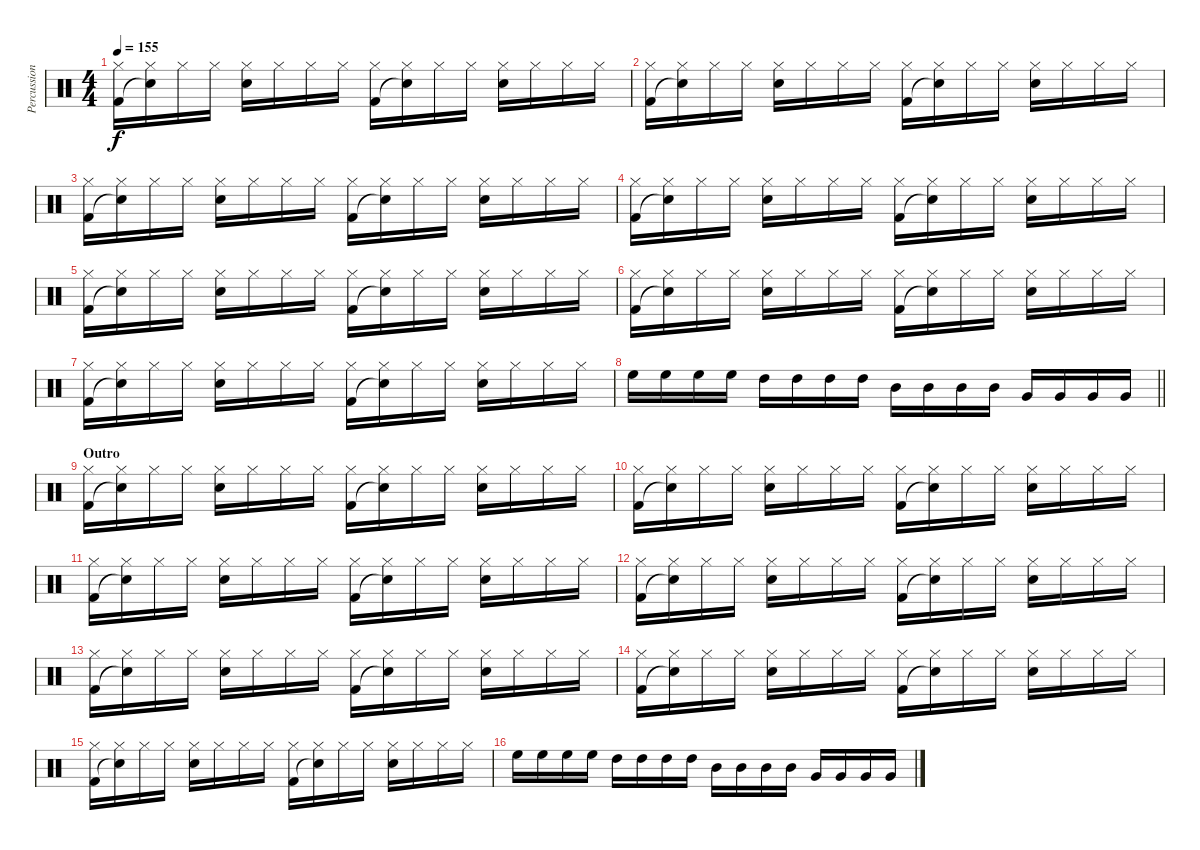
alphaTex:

\track ("Percussion" "Percussion") {instrument percussion}
\staff {score}
\articulation defaults
\ts (4 4)
\tempo 155
\clef neutral
\ks c
("Hi-Hat (closed)" "Kick (hit) 2").16{dy f} ("Hi-Hat (closed)" "Snare (hit)"{t}).16 "Hi-Hat (closed)".16 "Hi-Hat (closed)".16 ("Hi-Hat (closed)" "Snare (hit) 2").16 "Hi-Hat (closed)".16 "Hi-Hat (closed)".16 "Hi-Hat (closed)".16 ("Hi-Hat (closed)" "Kick (hit) 2").16 ("Hi-Hat (closed)" "Snare (hit)"{t}).16 "Hi-Hat (closed)".16 "Hi-Hat (closed)".16 ("Hi-Hat (closed)" "Snare (hit) 2").16 "Hi-Hat (closed)".16 "Hi-Hat (closed)".16 "Hi-Hat (closed)".16 |
("Hi-Hat (closed)" "Kick (hit) 2").16 ("Hi-Hat (closed)" "Snare (hit)"{t}).16 "Hi-Hat (closed)".16 "Hi-Hat (closed)".16 ("Hi-Hat (closed)" "Snare (hit) 2").16 "Hi-Hat (closed)".16 "Hi-Hat (closed)".16 "Hi-Hat (closed)".16 ("Hi-Hat (closed)" "Kick (hit) 2").16 ("Hi-Hat (closed)" "Snare (hit)"{t}).16 "Hi-Hat (closed)".16 "Hi-Hat (closed)".16 ("Hi-Hat (closed)" "Snare (hit) 2").16 "Hi-Hat (closed)".16 "Hi-Hat (closed)".16 "Hi-Hat (closed)".16 |
("Hi-Hat (closed)" "Kick (hit) 2").16 ("Hi-Hat (closed)" "Snare (hit)"{t}).16 "Hi-Hat (closed)".16 "Hi-Hat (closed)".16 ("Hi-Hat (closed)" "Snare (hit) 2").16 "Hi-Hat (closed)".16 "Hi-Hat (closed)".16 "Hi-Hat (closed)".16 ("Hi-Hat (closed)" "Kick (hit) 2").16 ("Hi-Hat (closed)" "Snare (hit)"{t}).16 "Hi-Hat (closed)".16 "Hi-Hat (closed)".16 ("Hi-Hat (closed)" "Snare (hit) 2").16 "Hi-Hat (closed)".16 "Hi-Hat (closed)".16 "Hi-Hat (closed)".16 |
("Hi-Hat (closed)" "Kick (hit) 2").16 ("Hi-Hat (closed)" "Snare (hit)"{t}).16 "Hi-Hat (closed)".16 "Hi-Hat (closed)".16 ("Hi-Hat (closed)" "Snare (hit) 2").16 "Hi-Hat (closed)".16 "Hi-Hat (closed)".16 "Hi-Hat (closed)".16 ("Hi-Hat (closed)" "Kick (hit) 2").16 ("Hi-Hat (closed)" "Snare (hit)"{t}).16 "Hi-Hat (closed)".16 "Hi-Hat (closed)".16 ("Hi-Hat (closed)" "Snare (hit) 2").16 "Hi-Hat (closed)".16 "Hi-Hat (closed)".16 "Hi-Hat (closed)".16 |
("Hi-Hat (closed)" "Kick (hit) 2").16 ("Hi-Hat (closed)" "Snare (hit)"{t}).16 "Hi-Hat (closed)".16 "Hi-Hat (closed)".16 ("Hi-Hat (closed)" "Snare (hit) 2").16 "Hi-Hat (closed)".16 "Hi-Hat (closed)".16 "Hi-Hat (closed)".16 ("Hi-Hat (closed)" "Kick (hit) 2").16 ("Hi-Hat (closed)" "Snare (hit)"{t}).16 "Hi-Hat (closed)".16 "Hi-Hat (closed)".16 ("Hi-Hat (closed)" "Snare (hit) 2").16 "Hi-Hat (closed)".16 "Hi-Hat (closed)".16 "Hi-Hat (closed)".16 |
("Hi-Hat (closed)" "Kick (hit) 2").16 ("Hi-Hat (closed)" "Snare (hit)"{t}).16 "Hi-Hat (closed)".16 "Hi-Hat (closed)".16 ("Hi-Hat (closed)" "Snare (hit) 2").16 "Hi-Hat (closed)".16 "Hi-Hat (closed)".16 "Hi-Hat (closed)".16 ("Hi-Hat (closed)" "Kick (hit) 2").16 ("Hi-Hat (closed)" "Snare (hit)"{t}).16 "Hi-Hat (closed)".16 "Hi-Hat (closed)".16 ("Hi-Hat (closed)" "Snare (hit) 2").16 "Hi-Hat (closed)".16 "Hi-Hat (closed)".16 "Hi-Hat (closed)".16 |
("Hi-Hat (closed)" "Kick (hit) 2").16 ("Hi-Hat (closed)" "Snare (hit)"{t}).16 "Hi-Hat (closed)".16 "Hi-Hat (closed)".16 ("Hi-Hat (closed)" "Snare (hit) 2").16 "Hi-Hat (closed)".16 "Hi-Hat (closed)".16 "Hi-Hat (closed)".16 ("Hi-Hat (closed)" "Kick (hit) 2").16 ("Hi-Hat (closed)" "Snare (hit)"{t}).16 "Hi-Hat (closed)".16 "Hi-Hat (closed)".16 ("Hi-Hat (closed)" "Snare (hit) 2").16 "Hi-Hat (closed)".16 "Hi-Hat (closed)".16 "Hi-Hat (closed)".16 |
\barLineRight lightlight "High Floor Tom (hit)".16 "High Floor Tom (hit)".16 "High Floor Tom (hit)".16 "High Floor Tom (hit)".16 "High Tom (hit)".16 "High Tom (hit)".16 "High Tom (hit)".16 "High Tom (hit)".16 "Mid Tom (hit)".16 "Mid Tom (hit)".16 "Mid Tom (hit)".16 "Mid Tom (hit)".16 "Very Low Tom (hit)".16 "Very Low Tom (hit)".16 "Very Low Tom (hit)".16 "Very Low Tom (hit)".16
|
\section ("" "Outro")
("Hi-Hat (closed)" "Kick (hit) 2").16 ("Hi-Hat (closed)" "Snare (hit)"{t}).16 "Hi-Hat (closed)".16 "Hi-Hat (closed)".16 ("Hi-Hat (closed)" "Snare (hit) 2").16 "Hi-Hat (closed)".16 "Hi-Hat (closed)".16 "Hi-Hat (closed)".16 ("Hi-Hat (closed)" "Kick (hit) 2").16 ("Hi-Hat (closed)" "Snare (hit)"{t}).16 "Hi-Hat (closed)".16 "Hi-Hat (closed)".16 ("Hi-Hat (closed)" "Snare (hit) 2").16 "Hi-Hat (closed)".16 "Hi-Hat (closed)".16 "Hi-Hat (closed)".16 |
("Hi-Hat (closed)" "Kick (hit) 2").16 ("Hi-Hat (closed)" "Snare (hit)"{t}).16 "Hi-Hat (closed)".16 "Hi-Hat (closed)".16 ("Hi-Hat (closed)" "Snare (hit) 2").16 "Hi-Hat (closed)".16 "Hi-Hat (closed)".16 "Hi-Hat (closed)".16 ("Hi-Hat (closed)" "Kick (hit) 2").16 ("Hi-Hat (closed)" "Snare (hit)"{t}).16 "Hi-Hat (closed)".16 "Hi-Hat (closed)".16 ("Hi-Hat (closed)" "Snare (hit) 2").16 "Hi-Hat (closed)".16 "Hi-Hat (closed)".16 "Hi-Hat (closed)".16 |
("Hi-Hat (closed)" "Kick (hit) 2").16 ("Hi-Hat (closed)" "Snare (hit)"{t}).16 "Hi-Hat (closed)".16 "Hi-Hat (closed)".16 ("Hi-Hat (closed)" "Snare (hit) 2").16 "Hi-Hat (closed)".16 "Hi-Hat (closed)".16 "Hi-Hat (closed)".16 ("Hi-Hat (closed)" "Kick (hit) 2").16 ("Hi-Hat (closed)" "Snare (hit)"{t}).16 "Hi-Hat (closed)".16 "Hi-Hat (closed)".16 ("Hi-Hat (closed)" "Snare (hit) 2").16 "Hi-Hat (closed)".16 "Hi-Hat (closed)".16 "Hi-Hat (closed)".16 |
("Hi-Hat (closed)" "Kick (hit) 2").16 ("Hi-Hat (closed)" "Snare (hit)"{t}).16 "Hi-Hat (closed)".16 "Hi-Hat (closed)".16 ("Hi-Hat (closed)" "Snare (hit) 2").16 "Hi-Hat (closed)".16 "Hi-Hat (closed)".16 "Hi-Hat (closed)".16 ("Hi-Hat (closed)" "Kick (hit) 2").16 ("Hi-Hat (closed)" "Snare (hit)"{t}).16 "Hi-Hat (closed)".16 "Hi-Hat (closed)".16 ("Hi-Hat (closed)" "Snare (hit) 2").16 "Hi-Hat (closed)".16 "Hi-Hat (closed)".16 "Hi-Hat (closed)".16 |
("Hi-Hat (closed)" "Kick (hit) 2").16 ("Hi-Hat (closed)" "Snare (hit)"{t}).16 "Hi-Hat (closed)".16 "Hi-Hat (closed)".16 ("Hi-Hat (closed)" "Snare (hit) 2").16 "Hi-Hat (closed)".16 "Hi-Hat (closed)".16 "Hi-Hat (closed)".16 ("Hi-Hat (closed)" "Kick (hit) 2").16 ("Hi-Hat (closed)" "Snare (hit)"{t}).16 "Hi-Hat (closed)".16 "Hi-Hat (closed)".16 ("Hi-Hat (closed)" "Snare (hit) 2").16 "Hi-Hat (closed)".16 "Hi-Hat (closed)".16 "Hi-Hat (closed)".16 |
("Hi-Hat (closed)" "Kick (hit) 2").16 ("Hi-Hat (closed)" "Snare (hit)"{t}).16 "Hi-Hat (closed)".16 "Hi-Hat (closed)".16 ("Hi-Hat (closed)" "Snare (hit) 2").16 "Hi-Hat (closed)".16 "Hi-Hat (closed)".16 "Hi-Hat (closed)".16 ("Hi-Hat (closed)" "Kick (hit) 2").16 ("Hi-Hat (closed)" "Snare (hit)"{t}).16 "Hi-Hat (closed)".16 "Hi-Hat (closed)".16 ("Hi-Hat (closed)" "Snare (hit) 2").16 "Hi-Hat (closed)".16 "Hi-Hat (closed)".16 "Hi-Hat (closed)".16 |
("Hi-Hat (closed)" "Kick (hit) 2").16 ("Hi-Hat (closed)" "Snare (hit)"{t}).16 "Hi-Hat (closed)".16 "Hi-Hat (closed)".16 ("Hi-Hat (closed)" "Snare (hit) 2").16 "Hi-Hat (closed)".16 "Hi-Hat (closed)".16 "Hi-Hat (closed)".16 ("Hi-Hat (closed)" "Kick (hit) 2").16 ("Hi-Hat (closed)" "Snare (hit)"{t}).16 "Hi-Hat (closed)".16 "Hi-Hat (closed)".16 ("Hi-Hat (closed)" "Snare (hit) 2").16 "Hi-Hat (closed)".16 "Hi-Hat (closed)".16 "Hi-Hat (closed)".16 |
"High Floor Tom (hit)".16 "High Floor Tom (hit)".16 "High Floor Tom (hit)".16 "High Floor Tom (hit)".16 "High Tom (hit)".16 "High Tom (hit)".16 "High Tom (hit)".16 "High Tom (hit)".16 "Mid Tom (hit)".16 "Mid Tom (hit)".16 "Mid Tom (hit)".16 "Mid Tom (hit)".16 "Very Low Tom (hit)".16 "Very Low Tom (hit)".16 "Very Low Tom (hit)".16 "Very Low Tom (hit)".16
